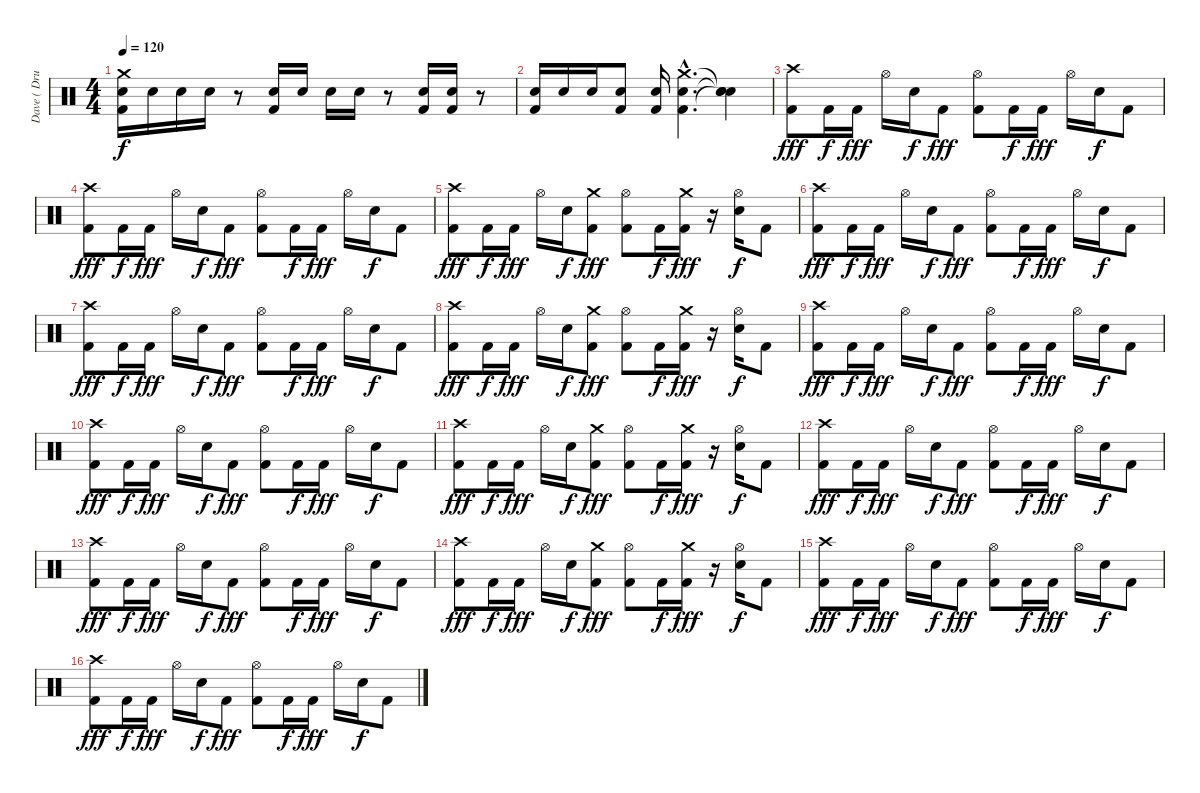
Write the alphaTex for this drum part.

\track ("Dave ( Drumm )" "Dave ( Dru") {instrument percussion}
\staff {score}
\articulation defaults
\ts (4 4)
\tempo 120
\clef neutral
\ks c
("Crash medium (hit)" "Snare (hit) 2" "Kick (hit) 2").16{dy f} "Snare (hit) 2".16 "Snare (hit) 2".16 "Snare (hit) 2".16 r.8 ("Snare (hit) 2" "Kick (hit) 2").16 "Snare (hit) 2".16 "Snare (hit) 2".16 "Snare (hit) 2".16 r.8 ("Snare (hit) 2" "Kick (hit) 2").16 ("Snare (hit) 2" "Kick (hit) 2").16 r.8 |
("Snare (hit) 2" "Kick (hit) 2").16 "Snare (hit) 2".16 "Snare (hit) 2".16 ("Snare (hit) 2" "Kick (hit) 2").8 ("Snare (hit) 2" "Kick (hit) 2").16 ("Crash medium (hit)"{hac} "Snare (hit) 2"{hac} "Kick (hit) 2"{hac}).4{d} ("Snare (hit)"{t} "Snare (hit)"{t} "Snare (hit)"{t}).4 |
("Crash high (hit)" "Kick (hit) 2").8{dy fff} "Kick (hit) 2".16{dy f} "Kick (hit) 2".16{dy fff} "Hi-Hat (open)".16 "Snare (hit) 2".16{dy f} "Kick (hit) 2".8{dy fff} ("Hi-Hat (open)" "Kick (hit) 2").8 "Kick (hit) 2".16{dy f} "Kick (hit) 2".16{dy fff} "Hi-Hat (open)".16 "Snare (hit) 2".16{dy f} "Kick (hit) 2".8 |
("Crash high (hit)" "Kick (hit) 2").8{dy fff} "Kick (hit) 2".16{dy f} "Kick (hit) 2".16{dy fff} "Hi-Hat (open)".16 "Snare (hit) 2".16{dy f} "Kick (hit) 2".8{dy fff} ("Hi-Hat (open)" "Kick (hit) 2").8 "Kick (hit) 2".16{dy f} "Kick (hit) 2".16{dy fff} "Hi-Hat (open)".16 "Snare (hit) 2".16{dy f} "Kick (hit) 2".8 |
("Crash high (hit)" "Kick (hit) 2").8{dy fff} "Kick (hit) 2".16{dy f} "Kick (hit) 2".16{dy fff} "Hi-Hat (open)".16 "Snare (hit) 2".16{dy f} ("Crash medium (hit)" "Kick (hit) 2").8{dy fff} ("Hi-Hat (open)" "Kick (hit) 2").8 "Kick (hit) 2".16{dy f} ("Crash medium (hit)" "Kick (hit) 2").16{dy fff} r.16 ("Hi-Hat (open)" "Snare (hit) 2").16{dy f} "Kick (hit) 2".8 |
("Crash high (hit)" "Kick (hit) 2").8{dy fff} "Kick (hit) 2".16{dy f} "Kick (hit) 2".16{dy fff} "Hi-Hat (open)".16 "Snare (hit) 2".16{dy f} "Kick (hit) 2".8{dy fff} ("Hi-Hat (open)" "Kick (hit) 2").8 "Kick (hit) 2".16{dy f} "Kick (hit) 2".16{dy fff} "Hi-Hat (open)".16 "Snare (hit) 2".16{dy f} "Kick (hit) 2".8 |
("Crash high (hit)" "Kick (hit) 2").8{dy fff} "Kick (hit) 2".16{dy f} "Kick (hit) 2".16{dy fff} "Hi-Hat (open)".16 "Snare (hit) 2".16{dy f} "Kick (hit) 2".8{dy fff} ("Hi-Hat (open)" "Kick (hit) 2").8 "Kick (hit) 2".16{dy f} "Kick (hit) 2".16{dy fff} "Hi-Hat (open)".16 "Snare (hit) 2".16{dy f} "Kick (hit) 2".8 |
("Crash high (hit)" "Kick (hit) 2").8{dy fff} "Kick (hit) 2".16{dy f} "Kick (hit) 2".16{dy fff} "Hi-Hat (open)".16 "Snare (hit) 2".16{dy f} ("Crash medium (hit)" "Kick (hit) 2").8{dy fff} ("Hi-Hat (open)" "Kick (hit) 2").8 "Kick (hit) 2".16{dy f} ("Crash medium (hit)" "Kick (hit) 2").16{dy fff} r.16 ("Hi-Hat (open)" "Snare (hit) 2").16{dy f} "Kick (hit) 2".8 |
("Crash high (hit)" "Kick (hit) 2").8{dy fff} "Kick (hit) 2".16{dy f} "Kick (hit) 2".16{dy fff} "Hi-Hat (open)".16 "Snare (hit) 2".16{dy f} "Kick (hit) 2".8{dy fff} ("Hi-Hat (open)" "Kick (hit) 2").8 "Kick (hit) 2".16{dy f} "Kick (hit) 2".16{dy fff} "Hi-Hat (open)".16 "Snare (hit) 2".16{dy f} "Kick (hit) 2".8 |
("Crash high (hit)" "Kick (hit) 2").8{dy fff} "Kick (hit) 2".16{dy f} "Kick (hit) 2".16{dy fff} "Hi-Hat (open)".16 "Snare (hit) 2".16{dy f} "Kick (hit) 2".8{dy fff} ("Hi-Hat (open)" "Kick (hit) 2").8 "Kick (hit) 2".16{dy f} "Kick (hit) 2".16{dy fff} "Hi-Hat (open)".16 "Snare (hit) 2".16{dy f} "Kick (hit) 2".8 |
("Crash high (hit)" "Kick (hit) 2").8{dy fff} "Kick (hit) 2".16{dy f} "Kick (hit) 2".16{dy fff} "Hi-Hat (open)".16 "Snare (hit) 2".16{dy f} ("Crash medium (hit)" "Kick (hit) 2").8{dy fff} ("Hi-Hat (open)" "Kick (hit) 2").8 "Kick (hit) 2".16{dy f} ("Crash medium (hit)" "Kick (hit) 2").16{dy fff} r.16 ("Hi-Hat (open)" "Snare (hit) 2").16{dy f} "Kick (hit) 2".8 |
("Crash high (hit)" "Kick (hit) 2").8{dy fff} "Kick (hit) 2".16{dy f} "Kick (hit) 2".16{dy fff} "Hi-Hat (open)".16 "Snare (hit) 2".16{dy f} "Kick (hit) 2".8{dy fff} ("Hi-Hat (open)" "Kick (hit) 2").8 "Kick (hit) 2".16{dy f} "Kick (hit) 2".16{dy fff} "Hi-Hat (open)".16 "Snare (hit) 2".16{dy f} "Kick (hit) 2".8 |
("Crash high (hit)" "Kick (hit) 2").8{dy fff} "Kick (hit) 2".16{dy f} "Kick (hit) 2".16{dy fff} "Hi-Hat (open)".16 "Snare (hit) 2".16{dy f} "Kick (hit) 2".8{dy fff} ("Hi-Hat (open)" "Kick (hit) 2").8 "Kick (hit) 2".16{dy f} "Kick (hit) 2".16{dy fff} "Hi-Hat (open)".16 "Snare (hit) 2".16{dy f} "Kick (hit) 2".8 |
("Crash high (hit)" "Kick (hit) 2").8{dy fff} "Kick (hit) 2".16{dy f} "Kick (hit) 2".16{dy fff} "Hi-Hat (open)".16 "Snare (hit) 2".16{dy f} ("Crash medium (hit)" "Kick (hit) 2").8{dy fff} ("Hi-Hat (open)" "Kick (hit) 2").8 "Kick (hit) 2".16{dy f} ("Crash medium (hit)" "Kick (hit) 2").16{dy fff} r.16 ("Hi-Hat (open)" "Snare (hit) 2").16{dy f} "Kick (hit) 2".8 |
("Crash high (hit)" "Kick (hit) 2").8{dy fff} "Kick (hit) 2".16{dy f} "Kick (hit) 2".16{dy fff} "Hi-Hat (open)".16 "Snare (hit) 2".16{dy f} "Kick (hit) 2".8{dy fff} ("Hi-Hat (open)" "Kick (hit) 2").8 "Kick (hit) 2".16{dy f} "Kick (hit) 2".16{dy fff} "Hi-Hat (open)".16 "Snare (hit) 2".16{dy f} "Kick (hit) 2".8 |
("Crash high (hit)" "Kick (hit) 2").8{dy fff} "Kick (hit) 2".16{dy f} "Kick (hit) 2".16{dy fff} "Hi-Hat (open)".16 "Snare (hit) 2".16{dy f} "Kick (hit) 2".8{dy fff} ("Hi-Hat (open)" "Kick (hit) 2").8 "Kick (hit) 2".16{dy f} "Kick (hit) 2".16{dy fff} "Hi-Hat (open)".16 "Snare (hit) 2".16{dy f} "Kick (hit) 2".8
